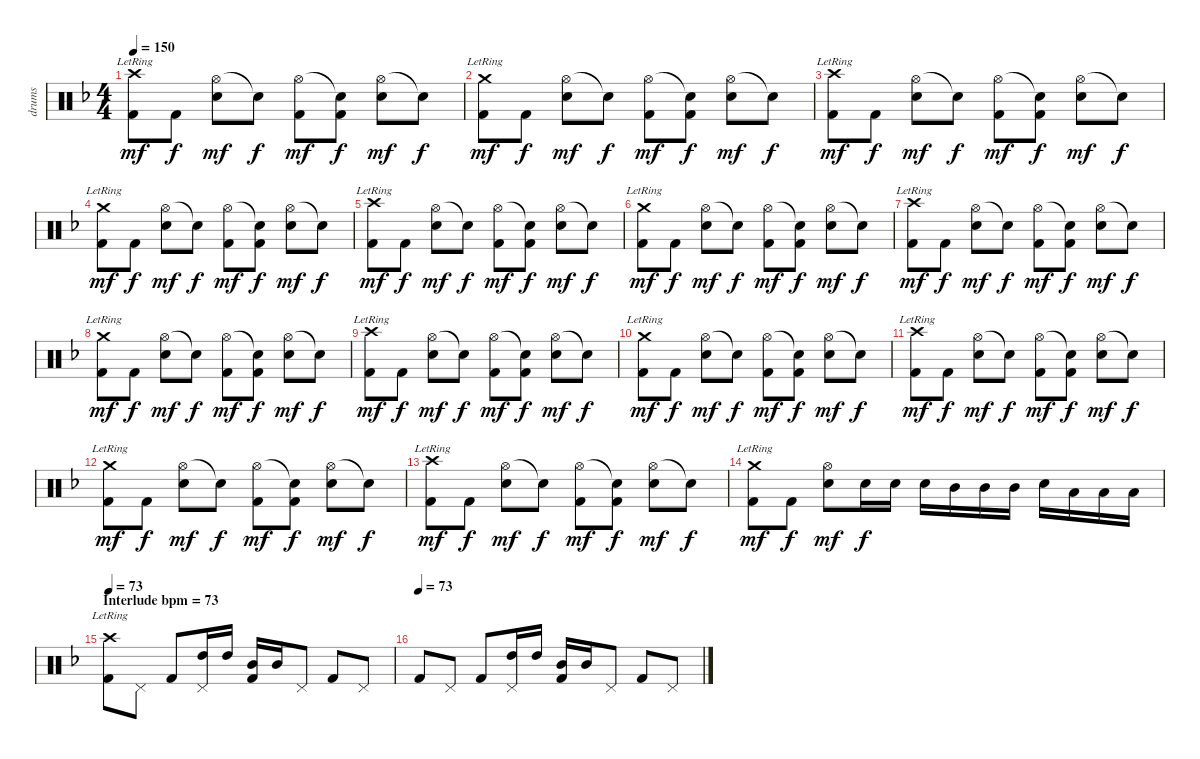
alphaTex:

\track ("drums" "drums") {instrument percussion}
\staff {score}
\articulation defaults
\ts (4 4)
\tempo 150
\clef neutral
\ks dminor
("Crash high (hit)"{lr} "Kick (hit) 2").8{dy mf} "Kick (hit) 2".8{dy f} ("Hi-Hat (open)" "Electric Snare (hit)").8{dy mf} "Snare (hit)"{t}.8{dy f} ("Hi-Hat (open)" "Kick (hit) 2").8{dy mf} ("Snare (hit)"{t} "Kick (hit) 2").8{dy f} ("Hi-Hat (open)" "Electric Snare (hit)").8{dy mf} "Snare (hit)"{t}.8{dy f} |
("Crash medium (hit)"{lr} "Kick (hit) 2").8{dy mf} "Kick (hit) 2".8{dy f} ("Hi-Hat (open)" "Electric Snare (hit)").8{dy mf} "Snare (hit)"{t}.8{dy f} ("Hi-Hat (open)" "Kick (hit) 2").8{dy mf} ("Snare (hit)"{t} "Kick (hit) 2").8{dy f} ("Hi-Hat (open)" "Electric Snare (hit)").8{dy mf} "Snare (hit)"{t}.8{dy f} |
("Crash high (hit)"{lr} "Kick (hit) 2").8{dy mf} "Kick (hit) 2".8{dy f} ("Hi-Hat (open)" "Electric Snare (hit)").8{dy mf} "Snare (hit)"{t}.8{dy f} ("Hi-Hat (open)" "Kick (hit) 2").8{dy mf} ("Snare (hit)"{t} "Kick (hit) 2").8{dy f} ("Hi-Hat (open)" "Electric Snare (hit)").8{dy mf} "Snare (hit)"{t}.8{dy f} |
("Crash medium (hit)"{lr} "Kick (hit) 2").8{dy mf} "Kick (hit) 2".8{dy f} ("Hi-Hat (open)" "Electric Snare (hit)").8{dy mf} "Snare (hit)"{t}.8{dy f} ("Hi-Hat (open)" "Kick (hit) 2").8{dy mf} ("Snare (hit)"{t} "Kick (hit) 2").8{dy f} ("Hi-Hat (open)" "Electric Snare (hit)").8{dy mf} "Snare (hit)"{t}.8{dy f} |
("Crash high (hit)"{lr} "Kick (hit) 2").8{dy mf} "Kick (hit) 2".8{dy f} ("Hi-Hat (open)" "Electric Snare (hit)").8{dy mf} "Snare (hit)"{t}.8{dy f} ("Hi-Hat (open)" "Kick (hit) 2").8{dy mf} ("Snare (hit)"{t} "Kick (hit) 2").8{dy f} ("Hi-Hat (open)" "Electric Snare (hit)").8{dy mf} "Snare (hit)"{t}.8{dy f} |
("Crash medium (hit)"{lr} "Kick (hit) 2").8{dy mf} "Kick (hit) 2".8{dy f} ("Hi-Hat (open)" "Electric Snare (hit)").8{dy mf} "Snare (hit)"{t}.8{dy f} ("Hi-Hat (open)" "Kick (hit) 2").8{dy mf} ("Snare (hit)"{t} "Kick (hit) 2").8{dy f} ("Hi-Hat (open)" "Electric Snare (hit)").8{dy mf} "Snare (hit)"{t}.8{dy f} |
("Crash high (hit)"{lr} "Kick (hit) 2").8{dy mf} "Kick (hit) 2".8{dy f} ("Hi-Hat (open)" "Electric Snare (hit)").8{dy mf} "Snare (hit)"{t}.8{dy f} ("Hi-Hat (open)" "Kick (hit) 2").8{dy mf} ("Snare (hit)"{t} "Kick (hit) 2").8{dy f} ("Hi-Hat (open)" "Electric Snare (hit)").8{dy mf} "Snare (hit)"{t}.8{dy f} |
("Crash medium (hit)"{lr} "Kick (hit) 2").8{dy mf} "Kick (hit) 2".8{dy f} ("Hi-Hat (open)" "Electric Snare (hit)").8{dy mf} "Snare (hit)"{t}.8{dy f} ("Hi-Hat (open)" "Kick (hit) 2").8{dy mf} ("Snare (hit)"{t} "Kick (hit) 2").8{dy f} ("Hi-Hat (open)" "Electric Snare (hit)").8{dy mf} "Snare (hit)"{t}.8{dy f} |
("Crash high (hit)"{lr} "Kick (hit) 2").8{dy mf} "Kick (hit) 2".8{dy f} ("Hi-Hat (open)" "Electric Snare (hit)").8{dy mf} "Snare (hit)"{t}.8{dy f} ("Hi-Hat (open)" "Kick (hit) 2").8{dy mf} ("Snare (hit)"{t} "Kick (hit) 2").8{dy f} ("Hi-Hat (open)" "Electric Snare (hit)").8{dy mf} "Snare (hit)"{t}.8{dy f} |
("Crash medium (hit)"{lr} "Kick (hit) 2").8{dy mf} "Kick (hit) 2".8{dy f} ("Hi-Hat (open)" "Electric Snare (hit)").8{dy mf} "Snare (hit)"{t}.8{dy f} ("Hi-Hat (open)" "Kick (hit) 2").8{dy mf} ("Snare (hit)"{t} "Kick (hit) 2").8{dy f} ("Hi-Hat (open)" "Electric Snare (hit)").8{dy mf} "Snare (hit)"{t}.8{dy f} |
("Crash high (hit)"{lr} "Kick (hit) 2").8{dy mf} "Kick (hit) 2".8{dy f} ("Hi-Hat (open)" "Electric Snare (hit)").8{dy mf} "Snare (hit)"{t}.8{dy f} ("Hi-Hat (open)" "Kick (hit) 2").8{dy mf} ("Snare (hit)"{t} "Kick (hit) 2").8{dy f} ("Hi-Hat (open)" "Electric Snare (hit)").8{dy mf} "Snare (hit)"{t}.8{dy f} |
("Crash medium (hit)"{lr} "Kick (hit) 2").8{dy mf} "Kick (hit) 2".8{dy f} ("Hi-Hat (open)" "Electric Snare (hit)").8{dy mf} "Snare (hit)"{t}.8{dy f} ("Hi-Hat (open)" "Kick (hit) 2").8{dy mf} ("Snare (hit)"{t} "Kick (hit) 2").8{dy f} ("Hi-Hat (open)" "Electric Snare (hit)").8{dy mf} "Snare (hit)"{t}.8{dy f} |
("Crash high (hit)"{lr} "Kick (hit) 2").8{dy mf} "Kick (hit) 2".8{dy f} ("Hi-Hat (open)" "Electric Snare (hit)").8{dy mf} "Snare (hit)"{t}.8{dy f} ("Hi-Hat (open)" "Kick (hit) 2").8{dy mf} ("Snare (hit)"{t} "Kick (hit) 2").8{dy f} ("Hi-Hat (open)" "Electric Snare (hit)").8{dy mf} "Snare (hit)"{t}.8{dy f} |
("Crash medium (hit)"{lr} "Kick (hit) 2").8{dy mf} "Kick (hit) 2".8{dy f} ("Hi-Hat (open)" "Electric Snare (hit)").8{dy mf} "Electric Snare (hit)".16{dy f} "Electric Snare (hit)".16 "Electric Snare (hit)".16 "Mid Tom (hit)".16 "Mid Tom (hit)".16 "Mid Tom (hit)".16 "Electric Snare (hit)".16 "Low Tom (hit)".16 "Low Tom (hit)".16 "Low Tom (hit)".16 |
\section ("" "Interlude bpm = 73")
\tempo 73
("Crash high (hit)"{lr} "Kick (hit) 2").8 "Pedal Hi-Hat (hit)".8 "Kick (hit) 2".8 ("Pedal Hi-Hat (hit)" "High Tom (hit)").16 "High Tom (hit)".16 ("Mid Tom (hit)" "Kick (hit) 2").16 "Mid Tom (hit)".16 "Pedal Hi-Hat (hit)".8 "Kick (hit) 2".8 "Pedal Hi-Hat (hit)".8 |
\tempo (73)
"Kick (hit) 2".8 "Pedal Hi-Hat (hit)".8 "Kick (hit) 2".8 ("Pedal Hi-Hat (hit)" "High Tom (hit)").16 "High Tom (hit)".16 ("Mid Tom (hit)" "Kick (hit) 2").16 "Mid Tom (hit)".16 "Pedal Hi-Hat (hit)".8 "Kick (hit) 2".8 "Pedal Hi-Hat (hit)".8
